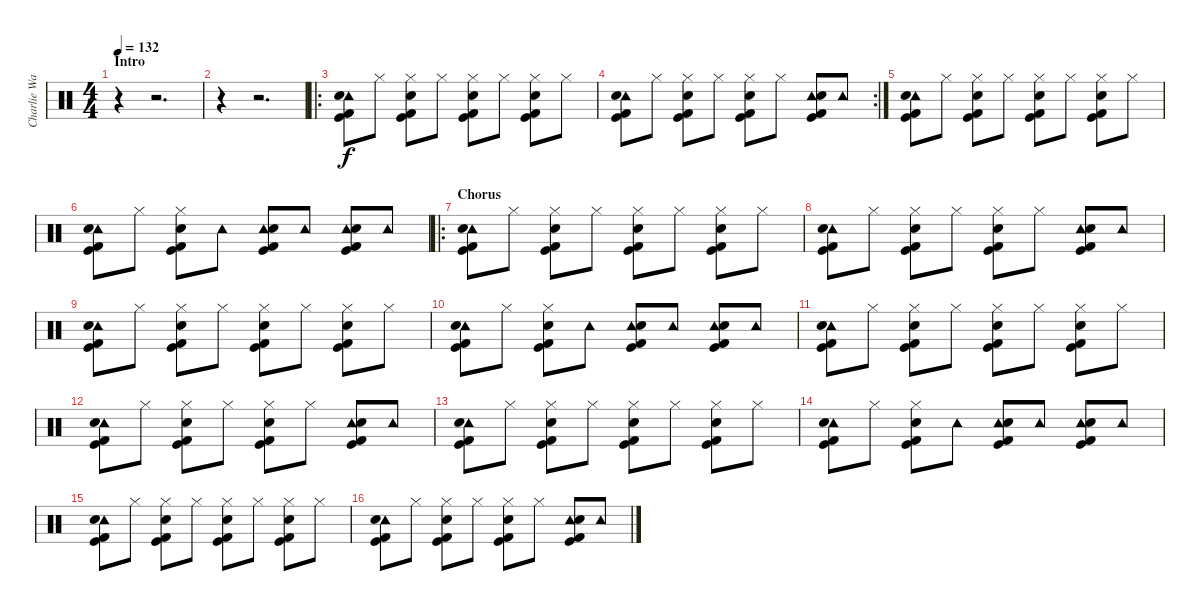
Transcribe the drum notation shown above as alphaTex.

\track ("Charlie Watts" "Charlie Wa") {instrument percussion}
\staff {score}
\articulation defaults
\ts (4 4)
\section ("" "Intro")
\tempo 132
\clef neutral
\ks c
r.4{dy f} r.2{d} |
r.4 r.2{d} |
\ro
("Tambourine (hit)" "Electric Snare (hit)" "Kick (hit) 2" "Kick (hit)").8 "Hi-Hat (closed)".8 ("Hi-Hat (closed)" "Electric Snare (hit)" "Kick (hit) 2" "Kick (hit)").8 "Hi-Hat (closed)".8 ("Hi-Hat (closed)" "Electric Snare (hit)" "Kick (hit) 2" "Kick (hit)").8 "Hi-Hat (closed)".8 ("Hi-Hat (closed)" "Electric Snare (hit)" "Kick (hit) 2" "Kick (hit)").8 "Hi-Hat (closed)".8 |
\rc 2
("Tambourine (hit)" "Electric Snare (hit)" "Kick (hit) 2" "Kick (hit)").8 "Hi-Hat (closed)".8 ("Hi-Hat (closed)" "Electric Snare (hit)" "Kick (hit) 2" "Kick (hit)").8 "Hi-Hat (closed)".8 ("Hi-Hat (closed)" "Electric Snare (hit)" "Kick (hit) 2" "Kick (hit)").8 "Hi-Hat (closed)".8 ("Tambourine (hit)" "Electric Snare (hit)" "Kick (hit) 2" "Kick (hit)").8 "Tambourine (hit)".8 |
("Tambourine (hit)" "Electric Snare (hit)" "Kick (hit) 2" "Kick (hit)").8 "Hi-Hat (closed)".8 ("Hi-Hat (closed)" "Electric Snare (hit)" "Kick (hit) 2" "Kick (hit)").8 "Hi-Hat (closed)".8 ("Hi-Hat (closed)" "Electric Snare (hit)" "Kick (hit) 2" "Kick (hit)").8 "Hi-Hat (closed)".8 ("Hi-Hat (closed)" "Electric Snare (hit)" "Kick (hit) 2" "Kick (hit)").8 "Hi-Hat (closed)".8 |
("Tambourine (hit)" "Electric Snare (hit)" "Kick (hit) 2" "Kick (hit)").8 "Hi-Hat (closed)".8 ("Hi-Hat (closed)" "Electric Snare (hit)" "Kick (hit) 2" "Kick (hit)").8 "Tambourine (hit)".8 ("Tambourine (hit)" "Electric Snare (hit)" "Kick (hit) 2" "Kick (hit)").8 "Tambourine (hit)".8 ("Tambourine (hit)" "Electric Snare (hit)" "Kick (hit) 2" "Kick (hit)").8 "Tambourine (hit)".8 |
\ro
\section ("" "Chorus")
("Tambourine (hit)" "Electric Snare (hit)" "Kick (hit) 2" "Kick (hit)").8 "Hi-Hat (closed)".8 ("Hi-Hat (closed)" "Electric Snare (hit)" "Kick (hit) 2" "Kick (hit)").8 "Hi-Hat (closed)".8 ("Hi-Hat (closed)" "Electric Snare (hit)" "Kick (hit) 2" "Kick (hit)").8 "Hi-Hat (closed)".8 ("Hi-Hat (closed)" "Electric Snare (hit)" "Kick (hit) 2" "Kick (hit)").8 "Hi-Hat (closed)".8 |
("Tambourine (hit)" "Electric Snare (hit)" "Kick (hit) 2" "Kick (hit)").8 "Hi-Hat (closed)".8 ("Hi-Hat (closed)" "Electric Snare (hit)" "Kick (hit) 2" "Kick (hit)").8 "Hi-Hat (closed)".8 ("Hi-Hat (closed)" "Electric Snare (hit)" "Kick (hit) 2" "Kick (hit)").8 "Hi-Hat (closed)".8 ("Tambourine (hit)" "Electric Snare (hit)" "Kick (hit) 2" "Kick (hit)").8 "Tambourine (hit)".8 |
("Tambourine (hit)" "Electric Snare (hit)" "Kick (hit) 2" "Kick (hit)").8 "Hi-Hat (closed)".8 ("Hi-Hat (closed)" "Electric Snare (hit)" "Kick (hit) 2" "Kick (hit)").8 "Hi-Hat (closed)".8 ("Hi-Hat (closed)" "Electric Snare (hit)" "Kick (hit) 2" "Kick (hit)").8 "Hi-Hat (closed)".8 ("Hi-Hat (closed)" "Electric Snare (hit)" "Kick (hit) 2" "Kick (hit)").8 "Hi-Hat (closed)".8 |
("Tambourine (hit)" "Electric Snare (hit)" "Kick (hit) 2" "Kick (hit)").8 "Hi-Hat (closed)".8 ("Hi-Hat (closed)" "Electric Snare (hit)" "Kick (hit) 2" "Kick (hit)").8 "Tambourine (hit)".8 ("Tambourine (hit)" "Electric Snare (hit)" "Kick (hit) 2" "Kick (hit)").8 "Tambourine (hit)".8 ("Tambourine (hit)" "Electric Snare (hit)" "Kick (hit) 2" "Kick (hit)").8 "Tambourine (hit)".8 |
("Tambourine (hit)" "Electric Snare (hit)" "Kick (hit) 2" "Kick (hit)").8 "Hi-Hat (closed)".8 ("Hi-Hat (closed)" "Electric Snare (hit)" "Kick (hit) 2" "Kick (hit)").8 "Hi-Hat (closed)".8 ("Hi-Hat (closed)" "Electric Snare (hit)" "Kick (hit) 2" "Kick (hit)").8 "Hi-Hat (closed)".8 ("Hi-Hat (closed)" "Electric Snare (hit)" "Kick (hit) 2" "Kick (hit)").8 "Hi-Hat (closed)".8 |
("Tambourine (hit)" "Electric Snare (hit)" "Kick (hit) 2" "Kick (hit)").8 "Hi-Hat (closed)".8 ("Hi-Hat (closed)" "Electric Snare (hit)" "Kick (hit) 2" "Kick (hit)").8 "Hi-Hat (closed)".8 ("Hi-Hat (closed)" "Electric Snare (hit)" "Kick (hit) 2" "Kick (hit)").8 "Hi-Hat (closed)".8 ("Tambourine (hit)" "Electric Snare (hit)" "Kick (hit) 2" "Kick (hit)").8 "Tambourine (hit)".8 |
("Tambourine (hit)" "Electric Snare (hit)" "Kick (hit) 2" "Kick (hit)").8 "Hi-Hat (closed)".8 ("Hi-Hat (closed)" "Electric Snare (hit)" "Kick (hit) 2" "Kick (hit)").8 "Hi-Hat (closed)".8 ("Hi-Hat (closed)" "Electric Snare (hit)" "Kick (hit) 2" "Kick (hit)").8 "Hi-Hat (closed)".8 ("Hi-Hat (closed)" "Electric Snare (hit)" "Kick (hit) 2" "Kick (hit)").8 "Hi-Hat (closed)".8 |
("Tambourine (hit)" "Electric Snare (hit)" "Kick (hit) 2" "Kick (hit)").8 "Hi-Hat (closed)".8 ("Hi-Hat (closed)" "Electric Snare (hit)" "Kick (hit) 2" "Kick (hit)").8 "Tambourine (hit)".8 ("Tambourine (hit)" "Electric Snare (hit)" "Kick (hit) 2" "Kick (hit)").8 "Tambourine (hit)".8 ("Tambourine (hit)" "Electric Snare (hit)" "Kick (hit) 2" "Kick (hit)").8 "Tambourine (hit)".8 |
("Tambourine (hit)" "Electric Snare (hit)" "Kick (hit) 2" "Kick (hit)").8 "Hi-Hat (closed)".8 ("Hi-Hat (closed)" "Electric Snare (hit)" "Kick (hit) 2" "Kick (hit)").8 "Hi-Hat (closed)".8 ("Hi-Hat (closed)" "Electric Snare (hit)" "Kick (hit) 2" "Kick (hit)").8 "Hi-Hat (closed)".8 ("Hi-Hat (closed)" "Electric Snare (hit)" "Kick (hit) 2" "Kick (hit)").8 "Hi-Hat (closed)".8 |
("Tambourine (hit)" "Electric Snare (hit)" "Kick (hit) 2" "Kick (hit)").8 "Hi-Hat (closed)".8 ("Hi-Hat (closed)" "Electric Snare (hit)" "Kick (hit) 2" "Kick (hit)").8 "Hi-Hat (closed)".8 ("Hi-Hat (closed)" "Electric Snare (hit)" "Kick (hit) 2" "Kick (hit)").8 "Hi-Hat (closed)".8 ("Tambourine (hit)" "Electric Snare (hit)" "Kick (hit) 2" "Kick (hit)").8 "Tambourine (hit)".8
